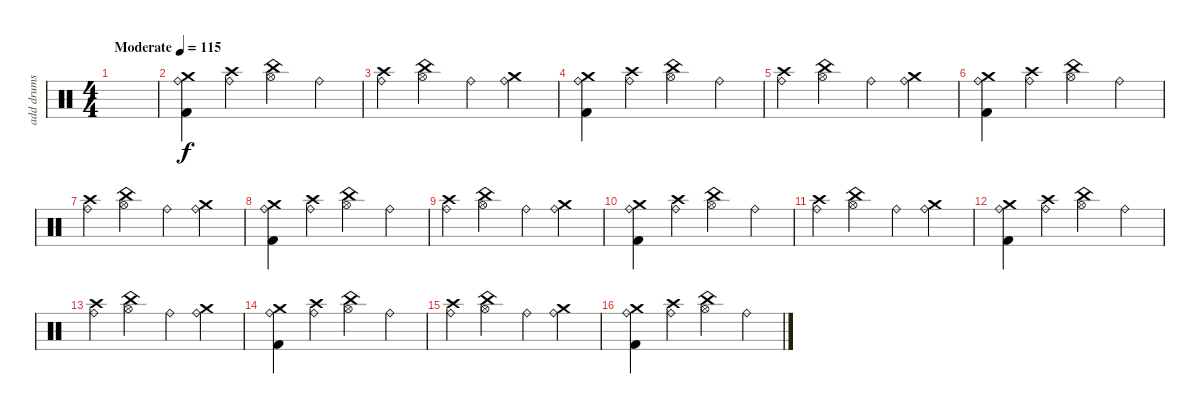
\track ("add drums" "add drums") {instrument percussion}
\staff {score}
\articulation defaults
\ts (4 4)
\tempo (115 "Moderate")
\clef neutral
\ks c
|
("Crash medium (hit)" "Ride (bell)" "Kick (hit) 2").4 ("Crash high (hit)" "Ride (bell)").4 ("China (hit)" "Hi-Hat (open)").4 "Ride (bell)".4 |
("Crash high (hit)" "Ride (bell)").4 ("China (hit)" "Hi-Hat (open)").4 "Ride (bell)".4 ("Crash medium (hit)" "Ride (bell)").4 |
("Crash medium (hit)" "Ride (bell)" "Kick (hit) 2").4 ("Crash high (hit)" "Ride (bell)").4 ("China (hit)" "Hi-Hat (open)").4 "Ride (bell)".4 |
("Crash high (hit)" "Ride (bell)").4 ("China (hit)" "Hi-Hat (open)").4 "Ride (bell)".4 ("Crash medium (hit)" "Ride (bell)").4 |
("Crash medium (hit)" "Ride (bell)" "Kick (hit) 2").4 ("Crash high (hit)" "Ride (bell)").4 ("China (hit)" "Hi-Hat (open)").4 "Ride (bell)".4 |
("Crash high (hit)" "Ride (bell)").4 ("China (hit)" "Hi-Hat (open)").4 "Ride (bell)".4 ("Crash medium (hit)" "Ride (bell)").4 |
("Crash medium (hit)" "Ride (bell)" "Kick (hit) 2").4 ("Crash high (hit)" "Ride (bell)").4 ("China (hit)" "Hi-Hat (open)").4 "Ride (bell)".4 |
("Crash high (hit)" "Ride (bell)").4 ("China (hit)" "Hi-Hat (open)").4 "Ride (bell)".4 ("Crash medium (hit)" "Ride (bell)").4 |
("Crash medium (hit)" "Ride (bell)" "Kick (hit) 2").4 ("Crash high (hit)" "Ride (bell)").4 ("China (hit)" "Hi-Hat (open)").4 "Ride (bell)".4 |
("Crash high (hit)" "Ride (bell)").4 ("China (hit)" "Hi-Hat (open)").4 "Ride (bell)".4 ("Crash medium (hit)" "Ride (bell)").4 |
("Crash medium (hit)" "Ride (bell)" "Kick (hit) 2").4 ("Crash high (hit)" "Ride (bell)").4 ("China (hit)" "Hi-Hat (open)").4 "Ride (bell)".4 |
("Crash high (hit)" "Ride (bell)").4 ("China (hit)" "Hi-Hat (open)").4 "Ride (bell)".4 ("Crash medium (hit)" "Ride (bell)").4 |
("Crash medium (hit)" "Ride (bell)" "Kick (hit) 2").4 ("Crash high (hit)" "Ride (bell)").4 ("China (hit)" "Hi-Hat (open)").4 "Ride (bell)".4 |
("Crash high (hit)" "Ride (bell)").4 ("China (hit)" "Hi-Hat (open)").4 "Ride (bell)".4 ("Crash medium (hit)" "Ride (bell)").4 |
("Crash medium (hit)" "Ride (bell)" "Kick (hit) 2").4 ("Crash high (hit)" "Ride (bell)").4 ("China (hit)" "Hi-Hat (open)").4 "Ride (bell)".4
